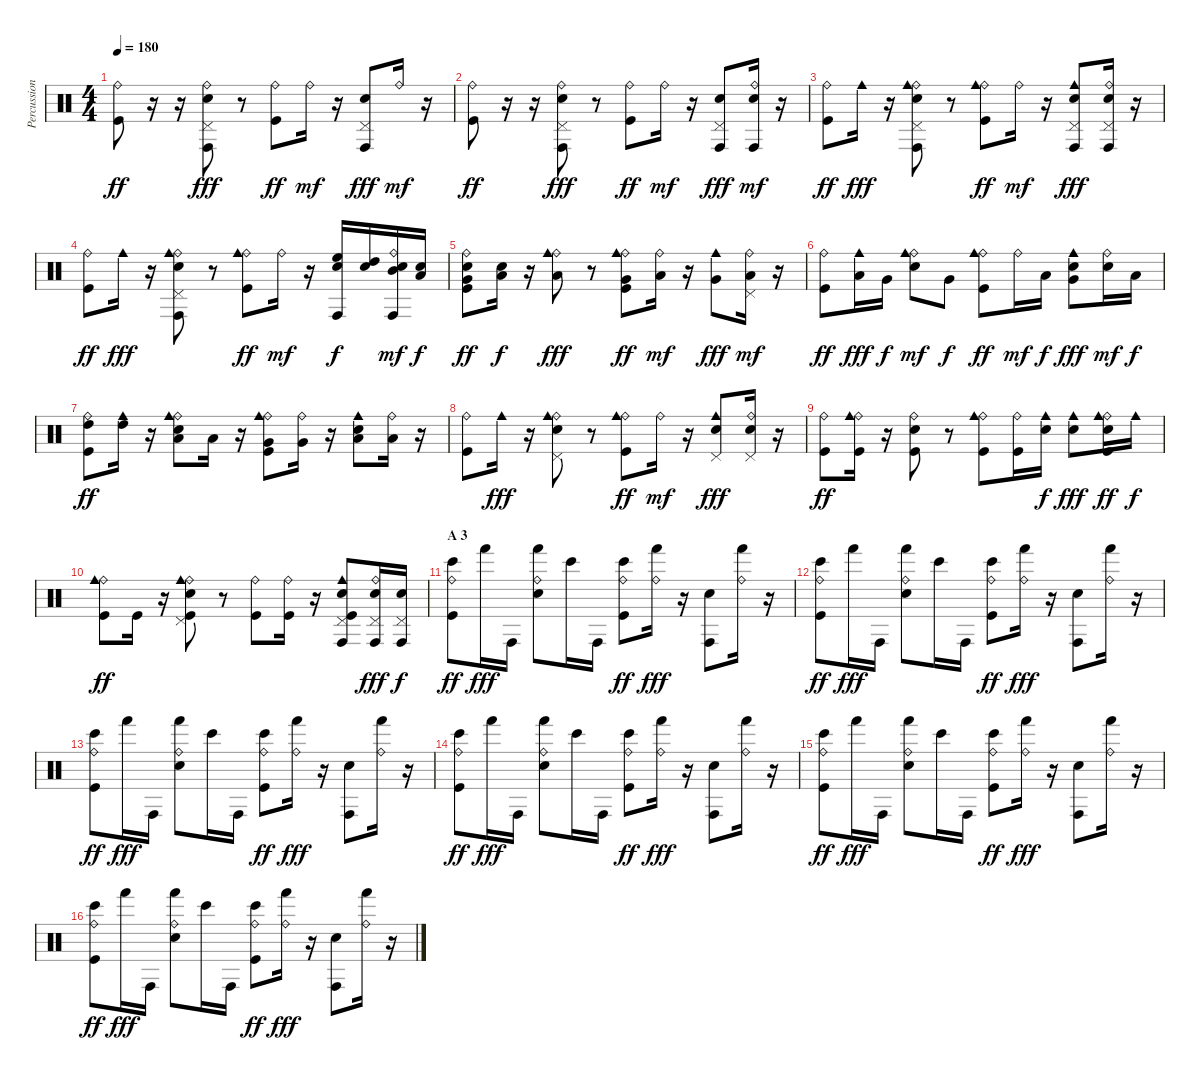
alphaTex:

\track ("Percussion" "Percussion") {instrument percussion}
\staff {score}
\articulation defaults
\ts (4 4)
\tempo 180
\clef neutral
\ks c
("Ride (bell)" "Kick (hit)").8{dy ff} r.16 r.16 ("Ride (bell)" "Pedal Hi-Hat (hit)" "Conga high (hit)" "Electric Snare (hit)").8{dy fff} r.8 ("Ride (bell)" "Kick (hit)").8{dy ff} "Ride (bell)".16{dy mf} r.16 ("Pedal Hi-Hat (hit)" "Conga high (hit)" "Electric Snare (hit)").8{dy fff} "Ride (bell)".16{dy mf} r.16 |
("Ride (bell)" "Kick (hit)").8{dy ff} r.16 r.16 ("Ride (bell)" "Pedal Hi-Hat (hit)" "Conga high (hit)" "Electric Snare (hit)").8{dy fff} r.8 ("Ride (bell)" "Kick (hit)").8{dy ff} "Ride (bell)".16{dy mf} r.16 ("Pedal Hi-Hat (hit)" "Conga high (hit)" "Electric Snare (hit)").8{dy fff} ("Ride (bell)" "Conga high (hit)" "Electric Snare (hit)").16{dy mf} r.16 |
("Ride (bell)" "Kick (hit)").8{dy ff} "Cowbell medium (hit)".16{dy fff} r.16 ("Ride (bell)" "Pedal Hi-Hat (hit)" "Cowbell medium (hit)" "Conga high (hit)" "Electric Snare (hit)").8 r.8 ("Ride (bell)" "Cowbell medium (hit)" "Kick (hit)").8{dy ff} "Ride (bell)".16{dy mf} r.16 ("Pedal Hi-Hat (hit)" "Cowbell medium (hit)" "Conga high (hit)" "Electric Snare (hit)").8{dy fff} ("Ride (bell)" "Pedal Hi-Hat (hit)" "Conga high (hit)" "Electric Snare (hit)").16 r.16 |
("Ride (bell)" "Kick (hit)").8{dy ff} "Cowbell medium (hit)".16{dy fff} r.16 ("Ride (bell)" "Pedal Hi-Hat (hit)" "Cowbell medium (hit)" "Conga high (hit)" "Electric Snare (hit)").8 r.8 ("Ride (bell)" "Cowbell medium (hit)" "Kick (hit)").8{dy ff} "Ride (bell)".16{dy mf} r.16 ("High Floor Tom (hit)" "Conga high (hit)" "Electric Snare (hit)").16{dy f} ("High Tom (hit)" "Electric Snare (hit)").16 ("Ride (bell)" "Mid Tom (hit)" "Conga high (hit)" "Electric Snare (hit)").16{dy mf} ("Low Tom (hit)" "Electric Snare (hit)").16{dy f} |
("Ride (bell)" "Very Low Tom (hit)" "Electric Snare (hit)" "Kick (hit)").8{dy ff} ("Low Floor Tom (hit)" "Electric Snare (hit)").16{dy f} r.16 ("Ride (bell)" "Cowbell medium (hit)" "Low Floor Tom (hit)").8{dy fff} r.8 ("Ride (bell)" "Cowbell medium (hit)" "Very Low Tom (hit)" "Kick (hit)").8{dy ff} ("Ride (bell)" "Low Floor Tom (hit)").16{dy mf} r.16 ("Cowbell medium (hit)" "Very Low Tom (hit)").8{dy fff} ("Ride (bell)" "Pedal Hi-Hat (hit)" "Low Floor Tom (hit)").16{dy mf} r.16 |
("Ride (bell)" "Kick (hit)").8{dy ff} ("Cowbell medium (hit)" "Low Floor Tom (hit)").16{dy fff} "Very Low Tom (hit)".16{dy f} ("Ride (bell)" "Cowbell medium (hit)" "Electric Snare (hit)").8{dy mf} "Very Low Tom (hit)".8{dy f} ("Ride (bell)" "Cowbell medium (hit)" "Kick (hit)").8{dy ff} "Ride (bell)".16{dy mf} "Low Tom (hit)".16{dy f} ("Cowbell medium (hit)" "Very Low Tom (hit)" "Electric Snare (hit)").8{dy fff} ("Ride (bell)" "Electric Snare (hit)").16{dy mf} "Low Tom (hit)".16{dy f} |
("Ride (bell)" "High Tom (hit)" "Kick (hit)").8{dy ff} ("Cowbell medium (hit)" "High Tom (hit)").16 r.16 ("Ride (bell)" "Cowbell medium (hit)" "Low Tom (hit)" "Electric Snare (hit)").8 "Low Tom (hit)".16 r.16 ("Ride (bell)" "Cowbell medium (hit)" "Very Low Tom (hit)" "Kick (hit)").8 ("Ride (bell)" "Very Low Tom (hit)").16 r.16 ("Cowbell medium (hit)" "Low Floor Tom (hit)" "Electric Snare (hit)").8 ("Ride (bell)" "Low Floor Tom (hit)").16 r.16 |
("Ride (bell)" "Kick (hit)").8 "Cowbell medium (hit)".16{dy fff} r.16 ("Ride (bell)" "Pedal Hi-Hat (hit)" "Cowbell medium (hit)" "Electric Snare (hit)").8 r.8 ("Ride (bell)" "Cowbell medium (hit)" "Kick (hit)").8{dy ff} "Ride (bell)".16{dy mf} r.16 ("Pedal Hi-Hat (hit)" "Cowbell medium (hit)" "Electric Snare (hit)").8{dy fff} ("Ride (bell)" "Pedal Hi-Hat (hit)" "Electric Snare (hit)").16 r.16 |
("Ride (bell)" "Kick (hit)").8{dy ff} ("Ride (bell)" "Cowbell medium (hit)" "Kick (hit)").16 r.16 ("Ride (bell)" "Electric Snare (hit)" "Kick (hit)").8 r.8 ("Ride (bell)" "Cowbell medium (hit)" "Kick (hit)").8 ("Ride (bell)" "Kick (hit)").16 ("Cowbell medium (hit)" "Electric Snare (hit)").16{dy f} ("Cowbell medium (hit)" "Electric Snare (hit)").8{dy fff} ("Ride (bell)" "Cowbell medium (hit)" "Electric Snare (hit)" "Kick (hit)").16{dy ff} "Cowbell medium (hit)".16{dy f} |
("Ride (bell)" "Cowbell medium (hit)" "Kick (hit)").8{dy ff} "Kick (hit)".16 r.16 ("Ride (bell)" "Pedal Hi-Hat (hit)" "Cowbell medium (hit)" "Electric Snare (hit)" "Kick (hit)").8 r.8 ("Ride (bell)" "Kick (hit)").8 ("Ride (bell)" "Kick (hit)").16 r.16 ("Pedal Hi-Hat (hit)" "Cowbell medium (hit)" "Conga high (hit)" "Electric Snare (hit)" "Kick (hit)").8 ("Ride (bell)" "Pedal Hi-Hat (hit)" "Conga high (hit)" "Electric Snare (hit)").16{dy fff} ("Pedal Hi-Hat (hit)" "Conga high (hit)" "Electric Snare (hit)").16{dy f} |
\section ("" "A 3")
("Ride (bell)" "Bongo High (hit)" "Kick (hit)").8{dy ff} "Hand (hit)".16{dy fff} "Conga high (hit)".16 ("Ride (bell)" "Hand (hit)" "Electric Snare (hit)").8 "Bongo High (hit)".16 "Conga high (hit)".16 ("Ride (bell)" "Bongo High (hit)" "Kick (hit)").8{dy ff} ("Ride (bell)" "Hand (hit)").16{dy fff} r.16 ("Conga high (hit)" "Electric Snare (hit)").8 ("Ride (bell)" "Hand (hit)").16 r.16 |
("Ride (bell)" "Bongo High (hit)" "Kick (hit)").8{dy ff} "Hand (hit)".16{dy fff} "Conga high (hit)".16 ("Ride (bell)" "Hand (hit)" "Electric Snare (hit)").8 "Bongo High (hit)".16 "Conga high (hit)".16 ("Ride (bell)" "Bongo High (hit)" "Kick (hit)").8{dy ff} ("Ride (bell)" "Hand (hit)").16{dy fff} r.16 ("Conga high (hit)" "Electric Snare (hit)").8 ("Ride (bell)" "Hand (hit)").16 r.16 |
("Ride (bell)" "Bongo High (hit)" "Kick (hit)").8{dy ff} "Hand (hit)".16{dy fff} "Conga high (hit)".16 ("Ride (bell)" "Hand (hit)" "Electric Snare (hit)").8 "Bongo High (hit)".16 "Conga high (hit)".16 ("Ride (bell)" "Bongo High (hit)" "Kick (hit)").8{dy ff} ("Ride (bell)" "Hand (hit)").16{dy fff} r.16 ("Conga high (hit)" "Electric Snare (hit)").8 ("Ride (bell)" "Hand (hit)").16 r.16 |
("Ride (bell)" "Bongo High (hit)" "Kick (hit)").8{dy ff} "Hand (hit)".16{dy fff} "Conga high (hit)".16 ("Ride (bell)" "Hand (hit)" "Electric Snare (hit)").8 "Bongo High (hit)".16 "Conga high (hit)".16 ("Ride (bell)" "Bongo High (hit)" "Kick (hit)").8{dy ff} ("Ride (bell)" "Hand (hit)").16{dy fff} r.16 ("Conga high (hit)" "Electric Snare (hit)").8 ("Ride (bell)" "Hand (hit)").16 r.16 |
("Ride (bell)" "Bongo High (hit)" "Kick (hit)").8{dy ff} "Hand (hit)".16{dy fff} "Conga high (hit)".16 ("Ride (bell)" "Hand (hit)" "Electric Snare (hit)").8 "Bongo High (hit)".16 "Conga high (hit)".16 ("Ride (bell)" "Bongo High (hit)" "Kick (hit)").8{dy ff} ("Ride (bell)" "Hand (hit)").16{dy fff} r.16 ("Conga high (hit)" "Electric Snare (hit)").8 ("Ride (bell)" "Hand (hit)").16 r.16 |
("Ride (bell)" "Bongo High (hit)" "Kick (hit)").8{dy ff} "Hand (hit)".16{dy fff} "Conga high (hit)".16 ("Ride (bell)" "Hand (hit)" "Electric Snare (hit)").8 "Bongo High (hit)".16 "Conga high (hit)".16 ("Ride (bell)" "Bongo High (hit)" "Kick (hit)").8{dy ff} ("Ride (bell)" "Hand (hit)").16{dy fff} r.16 ("Conga high (hit)" "Electric Snare (hit)").8 ("Ride (bell)" "Hand (hit)").16 r.16
